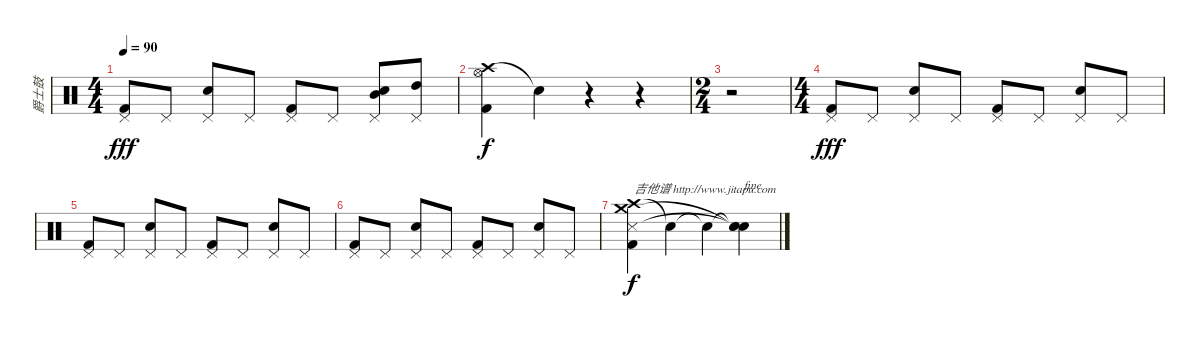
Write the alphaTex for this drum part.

\track ("爵士鼓" "爵士鼓") {instrument percussion}
\staff {score}
\articulation defaults
\ts (4 4)
\tempo 90
\clef neutral
\ks c
("Pedal Hi-Hat (hit)" "Kick (hit) 2").8{dy fff} "Pedal Hi-Hat (hit)".8 ("Pedal Hi-Hat (hit)" "Electric Snare (hit)").8 "Pedal Hi-Hat (hit)".8 ("Pedal Hi-Hat (hit)" "Kick (hit) 2").8 "Pedal Hi-Hat (hit)".8 ("Pedal Hi-Hat (hit)" "Electric Snare (hit)" "Mid Tom (hit)").8 ("Pedal Hi-Hat (hit)" "High Tom (hit)").8 |
("Crash high (hit)" "Hi-Hat (open)" "Kick (hit) 2").4{dy f} "Snare (hit)"{t}.4 r.4 r.4 |
\ts (2 4)
r.2 |
\ts (4 4)
("Pedal Hi-Hat (hit)" "Kick (hit) 2").8{dy fff} "Pedal Hi-Hat (hit)".8 ("Pedal Hi-Hat (hit)" "Electric Snare (hit)").8 "Pedal Hi-Hat (hit)".8 ("Pedal Hi-Hat (hit)" "Kick (hit) 2").8 "Pedal Hi-Hat (hit)".8 ("Pedal Hi-Hat (hit)" "Electric Snare (hit)").8 "Pedal Hi-Hat (hit)".8 |
("Pedal Hi-Hat (hit)" "Kick (hit) 2").8 "Pedal Hi-Hat (hit)".8 ("Pedal Hi-Hat (hit)" "Electric Snare (hit)").8 "Pedal Hi-Hat (hit)".8 ("Pedal Hi-Hat (hit)" "Kick (hit) 2").8 "Pedal Hi-Hat (hit)".8 ("Pedal Hi-Hat (hit)" "Electric Snare (hit)").8 "Pedal Hi-Hat (hit)".8 |
("Pedal Hi-Hat (hit)" "Kick (hit) 2").8 "Pedal Hi-Hat (hit)".8 ("Pedal Hi-Hat (hit)" "Electric Snare (hit)").8 "Pedal Hi-Hat (hit)".8 ("Pedal Hi-Hat (hit)" "Kick (hit) 2").8 "Pedal Hi-Hat (hit)".8 ("Pedal Hi-Hat (hit)" "Electric Snare (hit)").8 "Pedal Hi-Hat (hit)".8 |
("Crash high (hit)" "Snare (side stick) 3" "Crash medium (hit)" "Kick (hit) 2").4{txt "吉他谱 http://www.jitapu.com" dy f} "Snare (hit)"{t}.4 "Snare (hit)"{t}.4 ("Snare (hit)"{t} "Snare (hit)"{t} "Snare (hit)"{t}).4{txt "fine"}
